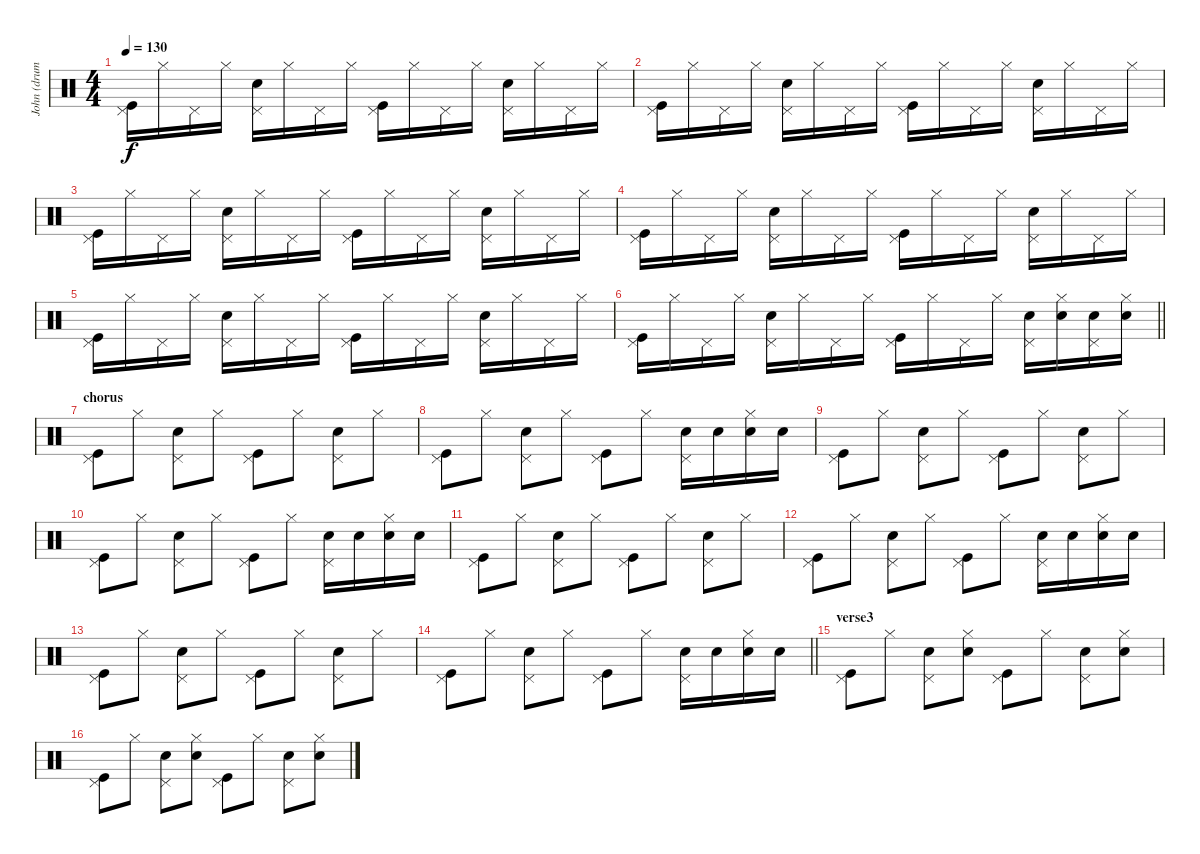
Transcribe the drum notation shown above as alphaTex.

\track ("John (drums)" "John (drum") {instrument percussion}
\staff {score}
\articulation defaults
\ts (4 4)
\tempo 130
\clef neutral
\ks c
("Pedal Hi-Hat (hit)" "Kick (hit)").16{dy f} "Hi-Hat (closed)".16 "Pedal Hi-Hat (hit)".16 "Hi-Hat (closed)".16 ("Pedal Hi-Hat (hit)" "Electric Snare (hit)").16 "Hi-Hat (closed)".16 "Pedal Hi-Hat (hit)".16 "Hi-Hat (closed)".16 ("Pedal Hi-Hat (hit)" "Kick (hit)").16 "Hi-Hat (closed)".16 "Pedal Hi-Hat (hit)".16 "Hi-Hat (closed)".16 ("Pedal Hi-Hat (hit)" "Snare (hit) 2").16 "Hi-Hat (closed)".16 "Pedal Hi-Hat (hit)".16 "Hi-Hat (closed)".16 |
("Pedal Hi-Hat (hit)" "Kick (hit)").16 "Hi-Hat (closed)".16 "Pedal Hi-Hat (hit)".16 "Hi-Hat (closed)".16 ("Pedal Hi-Hat (hit)" "Electric Snare (hit)").16 "Hi-Hat (closed)".16 "Pedal Hi-Hat (hit)".16 "Hi-Hat (closed)".16 ("Pedal Hi-Hat (hit)" "Kick (hit)").16 "Hi-Hat (closed)".16 "Pedal Hi-Hat (hit)".16 "Hi-Hat (closed)".16 ("Pedal Hi-Hat (hit)" "Snare (hit) 2").16 "Hi-Hat (closed)".16 "Pedal Hi-Hat (hit)".16 "Hi-Hat (closed)".16 |
("Pedal Hi-Hat (hit)" "Kick (hit)").16 "Hi-Hat (closed)".16 "Pedal Hi-Hat (hit)".16 "Hi-Hat (closed)".16 ("Pedal Hi-Hat (hit)" "Electric Snare (hit)").16 "Hi-Hat (closed)".16 "Pedal Hi-Hat (hit)".16 "Hi-Hat (closed)".16 ("Pedal Hi-Hat (hit)" "Kick (hit)").16 "Hi-Hat (closed)".16 "Pedal Hi-Hat (hit)".16 "Hi-Hat (closed)".16 ("Pedal Hi-Hat (hit)" "Snare (hit) 2").16 "Hi-Hat (closed)".16 "Pedal Hi-Hat (hit)".16 "Hi-Hat (closed)".16 |
("Pedal Hi-Hat (hit)" "Kick (hit)").16 "Hi-Hat (closed)".16 "Pedal Hi-Hat (hit)".16 "Hi-Hat (closed)".16 ("Pedal Hi-Hat (hit)" "Electric Snare (hit)").16 "Hi-Hat (closed)".16 "Pedal Hi-Hat (hit)".16 "Hi-Hat (closed)".16 ("Pedal Hi-Hat (hit)" "Kick (hit)").16 "Hi-Hat (closed)".16 "Pedal Hi-Hat (hit)".16 "Hi-Hat (closed)".16 ("Pedal Hi-Hat (hit)" "Snare (hit) 2").16 "Hi-Hat (closed)".16 "Pedal Hi-Hat (hit)".16 "Hi-Hat (closed)".16 |
("Pedal Hi-Hat (hit)" "Kick (hit)").16 "Hi-Hat (closed)".16 "Pedal Hi-Hat (hit)".16 "Hi-Hat (closed)".16 ("Pedal Hi-Hat (hit)" "Electric Snare (hit)").16 "Hi-Hat (closed)".16 "Pedal Hi-Hat (hit)".16 "Hi-Hat (closed)".16 ("Pedal Hi-Hat (hit)" "Kick (hit)").16 "Hi-Hat (closed)".16 "Pedal Hi-Hat (hit)".16 "Hi-Hat (closed)".16 ("Pedal Hi-Hat (hit)" "Snare (hit) 2").16 "Hi-Hat (closed)".16 "Pedal Hi-Hat (hit)".16 "Hi-Hat (closed)".16 |
\barLineRight lightlight
("Pedal Hi-Hat (hit)" "Kick (hit)").16 "Hi-Hat (closed)".16 "Pedal Hi-Hat (hit)".16 "Hi-Hat (closed)".16 ("Pedal Hi-Hat (hit)" "Electric Snare (hit)").16 "Hi-Hat (closed)".16 "Pedal Hi-Hat (hit)".16 "Hi-Hat (closed)".16 ("Pedal Hi-Hat (hit)" "Kick (hit)").16 "Hi-Hat (closed)".16 "Pedal Hi-Hat (hit)".16 "Hi-Hat (closed)".16 ("Pedal Hi-Hat (hit)" "Electric Snare (hit)").16 ("Hi-Hat (closed)" "Electric Snare (hit)").16 ("Pedal Hi-Hat (hit)" "Electric Snare (hit)").16 ("Hi-Hat (closed)" "Electric Snare (hit)").16 |
\section ("" "chorus")
("Pedal Hi-Hat (hit)" "Kick (hit)").8 "Hi-Hat (closed)".8 ("Pedal Hi-Hat (hit)" "Electric Snare (hit)").8 "Hi-Hat (closed)".8 ("Pedal Hi-Hat (hit)" "Kick (hit)").8 "Hi-Hat (closed)".8 ("Pedal Hi-Hat (hit)" "Electric Snare (hit)").8 "Hi-Hat (closed)".8 |
("Pedal Hi-Hat (hit)" "Kick (hit)").8 "Hi-Hat (closed)".8 ("Pedal Hi-Hat (hit)" "Electric Snare (hit)").8 "Hi-Hat (closed)".8 ("Pedal Hi-Hat (hit)" "Kick (hit)").8 "Hi-Hat (closed)".8 ("Pedal Hi-Hat (hit)" "Electric Snare (hit)").16 "Electric Snare (hit)".16 ("Hi-Hat (closed)" "Electric Snare (hit)").16 "Electric Snare (hit)".16 |
("Pedal Hi-Hat (hit)" "Kick (hit)").8 "Hi-Hat (closed)".8 ("Pedal Hi-Hat (hit)" "Electric Snare (hit)").8 "Hi-Hat (closed)".8 ("Pedal Hi-Hat (hit)" "Kick (hit)").8 "Hi-Hat (closed)".8 ("Pedal Hi-Hat (hit)" "Electric Snare (hit)").8 "Hi-Hat (closed)".8 |
("Pedal Hi-Hat (hit)" "Kick (hit)").8 "Hi-Hat (closed)".8 ("Pedal Hi-Hat (hit)" "Electric Snare (hit)").8 "Hi-Hat (closed)".8 ("Pedal Hi-Hat (hit)" "Kick (hit)").8 "Hi-Hat (closed)".8 ("Pedal Hi-Hat (hit)" "Electric Snare (hit)").16 "Electric Snare (hit)".16 ("Hi-Hat (closed)" "Electric Snare (hit)").16 "Electric Snare (hit)".16 |
("Pedal Hi-Hat (hit)" "Kick (hit)").8 "Hi-Hat (closed)".8 ("Pedal Hi-Hat (hit)" "Electric Snare (hit)").8 "Hi-Hat (closed)".8 ("Pedal Hi-Hat (hit)" "Kick (hit)").8 "Hi-Hat (closed)".8 ("Pedal Hi-Hat (hit)" "Electric Snare (hit)").8 "Hi-Hat (closed)".8 |
("Pedal Hi-Hat (hit)" "Kick (hit)").8 "Hi-Hat (closed)".8 ("Pedal Hi-Hat (hit)" "Electric Snare (hit)").8 "Hi-Hat (closed)".8 ("Pedal Hi-Hat (hit)" "Kick (hit)").8 "Hi-Hat (closed)".8 ("Pedal Hi-Hat (hit)" "Electric Snare (hit)").16 "Electric Snare (hit)".16 ("Hi-Hat (closed)" "Electric Snare (hit)").16 "Electric Snare (hit)".16 |
("Pedal Hi-Hat (hit)" "Kick (hit)").8 "Hi-Hat (closed)".8 ("Pedal Hi-Hat (hit)" "Electric Snare (hit)").8 "Hi-Hat (closed)".8 ("Pedal Hi-Hat (hit)" "Kick (hit)").8 "Hi-Hat (closed)".8 ("Pedal Hi-Hat (hit)" "Electric Snare (hit)").8 "Hi-Hat (closed)".8 |
\barLineRight lightlight
("Pedal Hi-Hat (hit)" "Kick (hit)").8 "Hi-Hat (closed)".8 ("Pedal Hi-Hat (hit)" "Electric Snare (hit)").8 "Hi-Hat (closed)".8 ("Pedal Hi-Hat (hit)" "Kick (hit)").8 "Hi-Hat (closed)".8 ("Pedal Hi-Hat (hit)" "Electric Snare (hit)").16 "Electric Snare (hit)".16 ("Hi-Hat (closed)" "Electric Snare (hit)").16 "Electric Snare (hit)".16 |
\section ("" "verse3")
("Pedal Hi-Hat (hit)" "Kick (hit)").8 "Hi-Hat (closed)".8 ("Pedal Hi-Hat (hit)" "Electric Snare (hit)").8 ("Hi-Hat (closed)" "Electric Snare (hit)").8 ("Pedal Hi-Hat (hit)" "Kick (hit)").8 "Hi-Hat (closed)".8 ("Pedal Hi-Hat (hit)" "Electric Snare (hit)").8 ("Hi-Hat (closed)" "Electric Snare (hit)").8 |
("Pedal Hi-Hat (hit)" "Kick (hit)").8 "Hi-Hat (closed)".8 ("Pedal Hi-Hat (hit)" "Electric Snare (hit)").8 ("Hi-Hat (closed)" "Electric Snare (hit)").8 ("Pedal Hi-Hat (hit)" "Kick (hit)").8 "Hi-Hat (closed)".8 ("Pedal Hi-Hat (hit)" "Electric Snare (hit)").8 ("Hi-Hat (closed)" "Electric Snare (hit)").8
